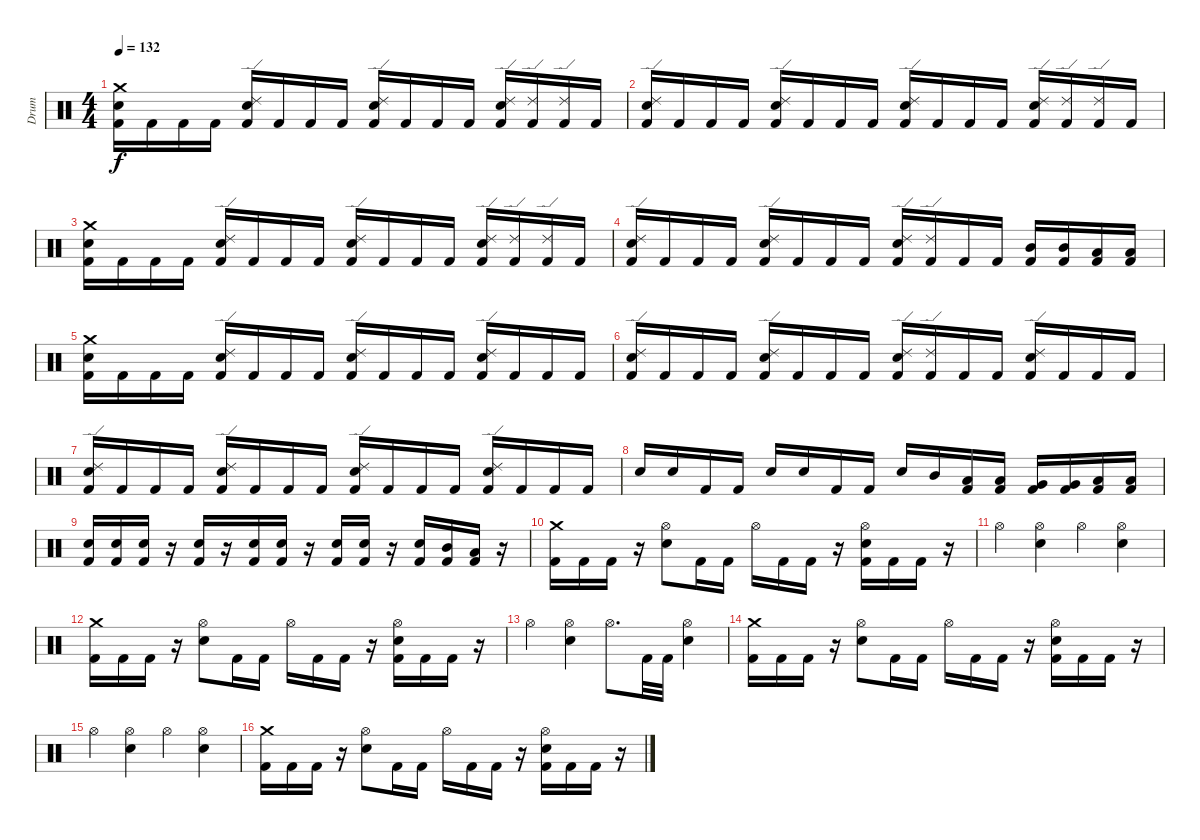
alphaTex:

\track ("Drum" "Drum") {instrument percussion}
\staff {score}
\articulation defaults
\ts (4 4)
\tempo 132
\clef neutral
\ks c
("Crash medium (hit)" "Snare (hit) 2" "Kick (hit) 2").16{dy f} "Kick (hit) 2".16 "Kick (hit) 2".16 "Kick (hit) 2".16 ("Ride (edge) 2" "Snare (hit) 2" "Kick (hit) 2").16 "Kick (hit) 2".16 "Kick (hit) 2".16 "Kick (hit) 2".16 ("Ride (edge) 2" "Snare (hit) 2" "Kick (hit) 2").16 "Kick (hit) 2".16 "Kick (hit) 2".16 "Kick (hit) 2".16 ("Ride (edge) 2" "Snare (hit) 2" "Kick (hit) 2").16 ("Ride (edge) 2" "Kick (hit) 2").16 ("Ride (edge) 2" "Kick (hit) 2").16 "Kick (hit) 2".16 |
("Ride (edge) 2" "Snare (hit) 2" "Kick (hit) 2").16 "Kick (hit) 2".16 "Kick (hit) 2".16 "Kick (hit) 2".16 ("Ride (edge) 2" "Snare (hit) 2" "Kick (hit) 2").16 "Kick (hit) 2".16 "Kick (hit) 2".16 "Kick (hit) 2".16 ("Ride (edge) 2" "Snare (hit) 2" "Kick (hit) 2").16 "Kick (hit) 2".16 "Kick (hit) 2".16 "Kick (hit) 2".16 ("Ride (edge) 2" "Snare (hit) 2" "Kick (hit) 2").16 ("Ride (edge) 2" "Kick (hit) 2").16 ("Ride (edge) 2" "Kick (hit) 2").16 "Kick (hit) 2".16 |
("Crash medium (hit)" "Snare (hit) 2" "Kick (hit) 2").16 "Kick (hit) 2".16 "Kick (hit) 2".16 "Kick (hit) 2".16 ("Ride (edge) 2" "Snare (hit) 2" "Kick (hit) 2").16 "Kick (hit) 2".16 "Kick (hit) 2".16 "Kick (hit) 2".16 ("Ride (edge) 2" "Snare (hit) 2" "Kick (hit) 2").16 "Kick (hit) 2".16 "Kick (hit) 2".16 "Kick (hit) 2".16 ("Ride (edge) 2" "Snare (hit) 2" "Kick (hit) 2").16 ("Ride (edge) 2" "Kick (hit) 2").16 ("Ride (edge) 2" "Kick (hit) 2").16 "Kick (hit) 2".16 |
("Ride (edge) 2" "Snare (hit) 2" "Kick (hit) 2").16 "Kick (hit) 2".16 "Kick (hit) 2".16 "Kick (hit) 2".16 ("Ride (edge) 2" "Snare (hit) 2" "Kick (hit) 2").16 "Kick (hit) 2".16 "Kick (hit) 2".16 "Kick (hit) 2".16 ("Ride (edge) 2" "Snare (hit) 2" "Kick (hit) 2").16 ("Ride (edge) 2" "Kick (hit) 2").16 "Kick (hit) 2".16 "Kick (hit) 2".16 ("Mid Tom (hit)" "Kick (hit) 2").16 ("Mid Tom (hit)" "Kick (hit) 2").16 ("Low Tom (hit)" "Kick (hit) 2").16 ("Low Tom (hit)" "Kick (hit) 2").16 |
("Crash medium (hit)" "Snare (hit) 2" "Kick (hit) 2").16 "Kick (hit) 2".16 "Kick (hit) 2".16 "Kick (hit) 2".16 ("Ride (edge) 2" "Snare (hit) 2" "Kick (hit) 2").16 "Kick (hit) 2".16 "Kick (hit) 2".16 "Kick (hit) 2".16 ("Ride (edge) 2" "Snare (hit) 2" "Kick (hit) 2").16 "Kick (hit) 2".16 "Kick (hit) 2".16 "Kick (hit) 2".16 ("Ride (edge) 2" "Snare (hit) 2" "Kick (hit) 2").16 "Kick (hit) 2".16 "Kick (hit) 2".16 "Kick (hit) 2".16 |
("Ride (edge) 2" "Snare (hit) 2" "Kick (hit) 2").16 "Kick (hit) 2".16 "Kick (hit) 2".16 "Kick (hit) 2".16 ("Ride (edge) 2" "Snare (hit) 2" "Kick (hit) 2").16 "Kick (hit) 2".16 "Kick (hit) 2".16 "Kick (hit) 2".16 ("Ride (edge) 2" "Snare (hit) 2" "Kick (hit) 2").16 ("Ride (edge) 2" "Kick (hit) 2").16 "Kick (hit) 2".16 "Kick (hit) 2".16 ("Ride (edge) 2" "Snare (hit) 2" "Kick (hit) 2").16 "Kick (hit) 2".16 "Kick (hit) 2".16 "Kick (hit) 2".16 |
("Ride (edge) 2" "Snare (hit) 2" "Kick (hit) 2").16 "Kick (hit) 2".16 "Kick (hit) 2".16 "Kick (hit) 2".16 ("Ride (edge) 2" "Snare (hit) 2" "Kick (hit) 2").16 "Kick (hit) 2".16 "Kick (hit) 2".16 "Kick (hit) 2".16 ("Ride (edge) 2" "Snare (hit) 2" "Kick (hit) 2").16 "Kick (hit) 2".16 "Kick (hit) 2".16 "Kick (hit) 2".16 ("Ride (edge) 2" "Snare (hit) 2" "Kick (hit) 2").16 "Kick (hit) 2".16 "Kick (hit) 2".16 "Kick (hit) 2".16 |
"Snare (hit) 2".16 "Snare (hit) 2".16 "Kick (hit) 2".16 "Kick (hit) 2".16 "Snare (hit) 2".16 "Snare (hit) 2".16 "Kick (hit) 2".16 "Kick (hit) 2".16 "Snare (hit) 2".16 "Mid Tom (hit)".16 ("Low Tom (hit)" "Kick (hit) 2").16 ("Low Tom (hit)" "Kick (hit) 2").16 ("Very Low Tom (hit)" "Kick (hit) 2").16 ("Very Low Tom (hit)" "Kick (hit) 2").16 ("Low Floor Tom (hit)" "Kick (hit) 2").16 ("Low Floor Tom (hit)" "Kick (hit) 2").16 |
("Snare (hit) 2" "Kick (hit) 2").16 ("Snare (hit) 2" "Kick (hit) 2").16 ("Snare (hit) 2" "Kick (hit) 2").16 r.16 ("Snare (hit) 2" "Kick (hit) 2").16 r.16 ("Snare (hit) 2" "Kick (hit) 2").16 ("Snare (hit) 2" "Kick (hit) 2").16 r.16 ("Snare (hit) 2" "Kick (hit) 2").16 ("Snare (hit) 2" "Kick (hit) 2").16 r.16 ("Snare (hit) 2" "Kick (hit) 2").16 ("Mid Tom (hit)" "Kick (hit) 2").16 ("Low Tom (hit)" "Kick (hit) 2").16 r.16 |
("Crash medium (hit)" "Kick (hit) 2").16 "Kick (hit) 2".16 "Kick (hit) 2".16 r.16 ("Hi-Hat (open)" "Snare (hit) 2").8 "Kick (hit) 2".16 "Kick (hit) 2".16 "Hi-Hat (open)".16 "Kick (hit) 2".16 "Kick (hit) 2".16 r.16 ("Hi-Hat (open)" "Snare (hit) 2" "Kick (hit) 2").16 "Kick (hit) 2".16 "Kick (hit) 2".16 r.16 |
"Hi-Hat (open)".4 ("Hi-Hat (open)" "Snare (hit) 2").4 "Hi-Hat (open)".4 ("Hi-Hat (open)" "Snare (hit) 2").4 |
("Crash medium (hit)" "Kick (hit) 2").16 "Kick (hit) 2".16 "Kick (hit) 2".16 r.16 ("Hi-Hat (open)" "Snare (hit) 2").8 "Kick (hit) 2".16 "Kick (hit) 2".16 "Hi-Hat (open)".16 "Kick (hit) 2".16 "Kick (hit) 2".16 r.16 ("Hi-Hat (open)" "Snare (hit) 2" "Kick (hit) 2").16 "Kick (hit) 2".16 "Kick (hit) 2".16 r.16 |
"Hi-Hat (open)".4 ("Hi-Hat (open)" "Snare (hit) 2").4 "Hi-Hat (open)".8{d} "Kick (hit) 2".32 "Kick (hit) 2".32 ("Hi-Hat (open)" "Snare (hit) 2").4 |
("Crash medium (hit)" "Kick (hit) 2").16 "Kick (hit) 2".16 "Kick (hit) 2".16 r.16 ("Hi-Hat (open)" "Snare (hit) 2").8 "Kick (hit) 2".16 "Kick (hit) 2".16 "Hi-Hat (open)".16 "Kick (hit) 2".16 "Kick (hit) 2".16 r.16 ("Hi-Hat (open)" "Snare (hit) 2" "Kick (hit) 2").16 "Kick (hit) 2".16 "Kick (hit) 2".16 r.16 |
"Hi-Hat (open)".4 ("Hi-Hat (open)" "Snare (hit) 2").4 "Hi-Hat (open)".4 ("Hi-Hat (open)" "Snare (hit) 2").4 |
("Crash medium (hit)" "Kick (hit) 2").16 "Kick (hit) 2".16 "Kick (hit) 2".16 r.16 ("Hi-Hat (open)" "Snare (hit) 2").8 "Kick (hit) 2".16 "Kick (hit) 2".16 "Hi-Hat (open)".16 "Kick (hit) 2".16 "Kick (hit) 2".16 r.16 ("Hi-Hat (open)" "Snare (hit) 2" "Kick (hit) 2").16 "Kick (hit) 2".16 "Kick (hit) 2".16 r.16
